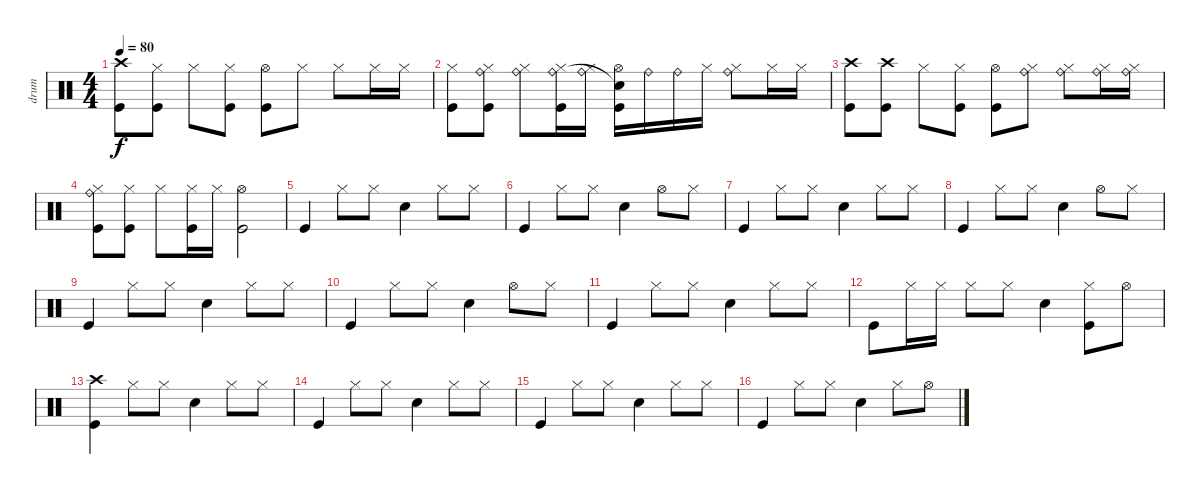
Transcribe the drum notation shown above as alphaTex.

\track ("drum" "drum") {instrument percussion}
\staff {score}
\articulation defaults
\ts (4 4)
\tempo 80
\clef neutral
\ks c
("Crash high (hit)" "Kick (hit)").8{dy f} ("Hi-Hat (closed)" "Kick (hit)").8 "Hi-Hat (closed)".8 ("Hi-Hat (closed)" "Kick (hit)").8 ("Hi-Hat (open)" "Kick (hit)").8 "Hi-Hat (closed)".8 "Hi-Hat (closed)".8 "Hi-Hat (closed)".16 "Hi-Hat (closed)".16 |
("Hi-Hat (closed)" "Kick (hit)").8 ("Hi-Hat (closed)" "Kick (hit)" "Ride (bell)").8 ("Hi-Hat (closed)" "Ride (bell)").8 ("Hi-Hat (closed)" "Kick (hit)" "Ride (bell)").16 ("Hi-Hat (closed)" "Ride (bell)").16 ("Hi-Hat (open)" "Kick (hit)" "Snare (hit)"{t}).16 "Ride (bell)".16 "Ride (bell)".16 "Hi-Hat (closed)".16 ("Hi-Hat (closed)" "Ride (bell)").8 "Hi-Hat (closed)".16 "Hi-Hat (closed)".16 |
("Crash high (hit)" "Kick (hit)").8 ("Crash high (hit)" "Kick (hit)").8 "Hi-Hat (closed)".8 ("Hi-Hat (closed)" "Kick (hit)").8 ("Hi-Hat (open)" "Kick (hit)").8 ("Hi-Hat (closed)" "Ride (bell)").8 ("Hi-Hat (closed)" "Ride (bell)").8 ("Hi-Hat (closed)" "Ride (bell)").16 ("Hi-Hat (closed)" "Ride (bell)").16 |
("Hi-Hat (closed)" "Kick (hit)" "Ride (bell)").8 ("Hi-Hat (closed)" "Kick (hit)").8 "Hi-Hat (closed)".8 ("Hi-Hat (closed)" "Kick (hit)").16 "Hi-Hat (closed)".16 ("Hi-Hat (open)" "Kick (hit)").2 |
"Kick (hit)".4 "Hi-Hat (closed)".8 "Hi-Hat (closed)".8 "Snare (hit) 2".4 "Hi-Hat (closed)".8 "Hi-Hat (closed)".8 |
"Kick (hit)".4 "Hi-Hat (closed)".8 "Hi-Hat (closed)".8 "Snare (hit) 2".4 "Hi-Hat (open)".8 "Hi-Hat (closed)".8 |
"Kick (hit)".4 "Hi-Hat (closed)".8 "Hi-Hat (closed)".8 "Snare (hit) 2".4 "Hi-Hat (closed)".8 "Hi-Hat (closed)".8 |
"Kick (hit)".4 "Hi-Hat (closed)".8 "Hi-Hat (closed)".8 "Snare (hit) 2".4 "Hi-Hat (open)".8 "Hi-Hat (closed)".8 |
"Kick (hit)".4 "Hi-Hat (closed)".8 "Hi-Hat (closed)".8 "Snare (hit) 2".4 "Hi-Hat (closed)".8 "Hi-Hat (closed)".8 |
"Kick (hit)".4 "Hi-Hat (closed)".8 "Hi-Hat (closed)".8 "Snare (hit) 2".4 "Hi-Hat (open)".8 "Hi-Hat (closed)".8 |
"Kick (hit)".4 "Hi-Hat (closed)".8 "Hi-Hat (closed)".8 "Snare (hit) 2".4 "Hi-Hat (closed)".8 "Hi-Hat (closed)".8 |
"Kick (hit)".8 "Hi-Hat (closed)".16 "Hi-Hat (closed)".16 "Hi-Hat (closed)".8 "Hi-Hat (closed)".8 "Snare (hit) 2".4 ("Hi-Hat (closed)" "Kick (hit)").8 "Hi-Hat (open)".8 |
("Crash high (hit)" "Kick (hit)").4 "Hi-Hat (closed)".8 "Hi-Hat (closed)".8 "Snare (hit) 2".4 "Hi-Hat (closed)".8 "Hi-Hat (closed)".8 |
"Kick (hit)".4 "Hi-Hat (closed)".8 "Hi-Hat (closed)".8 "Snare (hit) 2".4 "Hi-Hat (closed)".8 "Hi-Hat (closed)".8 |
"Kick (hit)".4 "Hi-Hat (closed)".8 "Hi-Hat (closed)".8 "Snare (hit) 2".4 "Hi-Hat (closed)".8 "Hi-Hat (closed)".8 |
"Kick (hit)".4 "Hi-Hat (closed)".8 "Hi-Hat (closed)".8 "Snare (hit) 2".4 "Hi-Hat (closed)".8 "Hi-Hat (open)".8
